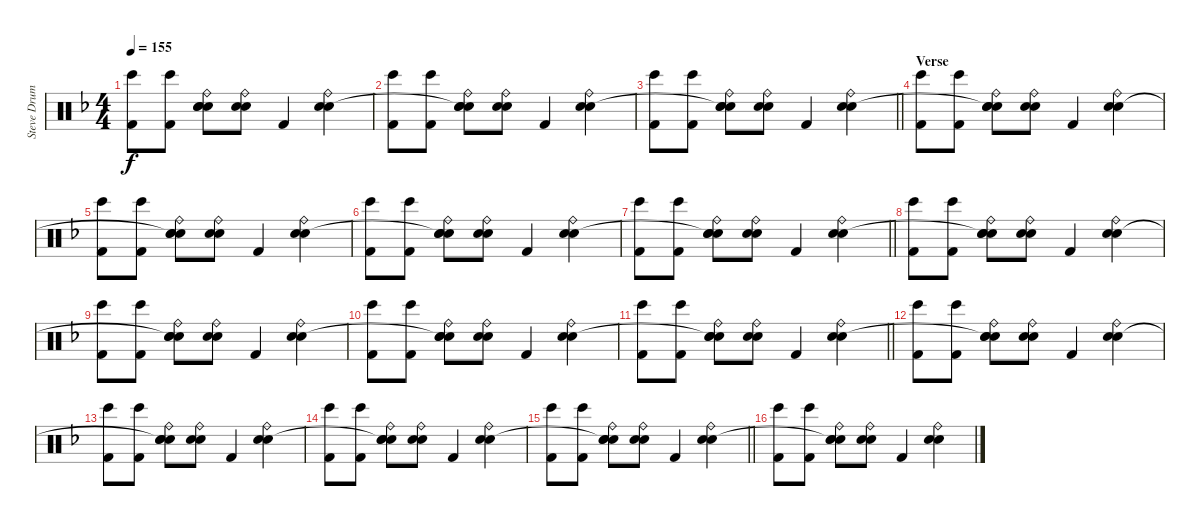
\track ("Steve Drums" "Steve Drum") {instrument percussion}
\staff {score}
\articulation defaults
\ts (4 4)
\tempo 155
\clef neutral
\ks f
("Bongo High (hit)" "Kick (hit) 2").8{dy f} ("Bongo High (hit)" "Kick (hit) 2").8 ("Ride (bell)" "Snare (hit) 2" "Snare (hit)"{t} "Electric Snare (hit)").8 ("Ride (bell)" "Snare (hit) 2" "Electric Snare (hit)").8 "Kick (hit) 2".4 ("Ride (bell)" "Snare (hit) 2" "Electric Snare (hit)").4 |
("Bongo High (hit)" "Kick (hit) 2").8 ("Bongo High (hit)" "Kick (hit) 2").8 ("Ride (bell)" "Snare (hit) 2" "Snare (hit)"{t} "Electric Snare (hit)").8 ("Ride (bell)" "Snare (hit) 2" "Electric Snare (hit)").8 "Kick (hit) 2".4 ("Ride (bell)" "Snare (hit) 2" "Electric Snare (hit)").4 |
\barLineRight lightlight
("Bongo High (hit)" "Kick (hit) 2").8 ("Bongo High (hit)" "Kick (hit) 2").8 ("Ride (bell)" "Snare (hit) 2" "Snare (hit)"{t} "Electric Snare (hit)").8 ("Ride (bell)" "Snare (hit) 2" "Electric Snare (hit)").8 "Kick (hit) 2".4 ("Ride (bell)" "Snare (hit) 2" "Electric Snare (hit)").4 |
\section ("" "Verse")
("Bongo High (hit)" "Kick (hit) 2").8 ("Bongo High (hit)" "Kick (hit) 2").8 ("Ride (bell)" "Snare (hit) 2" "Snare (hit)"{t} "Electric Snare (hit)").8 ("Ride (bell)" "Snare (hit) 2" "Electric Snare (hit)").8 "Kick (hit) 2".4 ("Ride (bell)" "Snare (hit) 2" "Electric Snare (hit)").4 |
("Bongo High (hit)" "Kick (hit) 2").8 ("Bongo High (hit)" "Kick (hit) 2").8 ("Ride (bell)" "Snare (hit) 2" "Snare (hit)"{t} "Electric Snare (hit)").8 ("Ride (bell)" "Snare (hit) 2" "Electric Snare (hit)").8 "Kick (hit) 2".4 ("Ride (bell)" "Snare (hit) 2" "Electric Snare (hit)").4 |
("Bongo High (hit)" "Kick (hit) 2").8 ("Bongo High (hit)" "Kick (hit) 2").8 ("Ride (bell)" "Snare (hit) 2" "Snare (hit)"{t} "Electric Snare (hit)").8 ("Ride (bell)" "Snare (hit) 2" "Electric Snare (hit)").8 "Kick (hit) 2".4 ("Ride (bell)" "Snare (hit) 2" "Electric Snare (hit)").4 |
\barLineRight lightlight
("Bongo High (hit)" "Kick (hit) 2").8 ("Bongo High (hit)" "Kick (hit) 2").8 ("Ride (bell)" "Snare (hit) 2" "Snare (hit)"{t} "Electric Snare (hit)").8 ("Ride (bell)" "Snare (hit) 2" "Electric Snare (hit)").8 "Kick (hit) 2".4 ("Ride (bell)" "Snare (hit) 2" "Electric Snare (hit)").4 |
("Bongo High (hit)" "Kick (hit) 2").8 ("Bongo High (hit)" "Kick (hit) 2").8 ("Ride (bell)" "Snare (hit) 2" "Snare (hit)"{t} "Electric Snare (hit)").8 ("Ride (bell)" "Snare (hit) 2" "Electric Snare (hit)").8 "Kick (hit) 2".4 ("Ride (bell)" "Snare (hit) 2" "Electric Snare (hit)").4 |
("Bongo High (hit)" "Kick (hit) 2").8 ("Bongo High (hit)" "Kick (hit) 2").8 ("Ride (bell)" "Snare (hit) 2" "Snare (hit)"{t} "Electric Snare (hit)").8 ("Ride (bell)" "Snare (hit) 2" "Electric Snare (hit)").8 "Kick (hit) 2".4 ("Ride (bell)" "Snare (hit) 2" "Electric Snare (hit)").4 |
("Bongo High (hit)" "Kick (hit) 2").8 ("Bongo High (hit)" "Kick (hit) 2").8 ("Ride (bell)" "Snare (hit) 2" "Snare (hit)"{t} "Electric Snare (hit)").8 ("Ride (bell)" "Snare (hit) 2" "Electric Snare (hit)").8 "Kick (hit) 2".4 ("Ride (bell)" "Snare (hit) 2" "Electric Snare (hit)").4 |
\barLineRight lightlight
("Bongo High (hit)" "Kick (hit) 2").8 ("Bongo High (hit)" "Kick (hit) 2").8 ("Ride (bell)" "Snare (hit) 2" "Snare (hit)"{t} "Electric Snare (hit)").8 ("Ride (bell)" "Snare (hit) 2" "Electric Snare (hit)").8 "Kick (hit) 2".4 ("Ride (bell)" "Snare (hit) 2" "Electric Snare (hit)").4 |
("Bongo High (hit)" "Kick (hit) 2").8 ("Bongo High (hit)" "Kick (hit) 2").8 ("Ride (bell)" "Snare (hit) 2" "Snare (hit)"{t} "Electric Snare (hit)").8 ("Ride (bell)" "Snare (hit) 2" "Electric Snare (hit)").8 "Kick (hit) 2".4 ("Ride (bell)" "Snare (hit) 2" "Electric Snare (hit)").4 |
("Bongo High (hit)" "Kick (hit) 2").8 ("Bongo High (hit)" "Kick (hit) 2").8 ("Ride (bell)" "Snare (hit) 2" "Snare (hit)"{t} "Electric Snare (hit)").8 ("Ride (bell)" "Snare (hit) 2" "Electric Snare (hit)").8 "Kick (hit) 2".4 ("Ride (bell)" "Snare (hit) 2" "Electric Snare (hit)").4 |
("Bongo High (hit)" "Kick (hit) 2").8 ("Bongo High (hit)" "Kick (hit) 2").8 ("Ride (bell)" "Snare (hit) 2" "Snare (hit)"{t} "Electric Snare (hit)").8 ("Ride (bell)" "Snare (hit) 2" "Electric Snare (hit)").8 "Kick (hit) 2".4 ("Ride (bell)" "Snare (hit) 2" "Electric Snare (hit)").4 |
\barLineRight lightlight
("Bongo High (hit)" "Kick (hit) 2").8 ("Bongo High (hit)" "Kick (hit) 2").8 ("Ride (bell)" "Snare (hit) 2" "Snare (hit)"{t} "Electric Snare (hit)").8 ("Ride (bell)" "Snare (hit) 2" "Electric Snare (hit)").8 "Kick (hit) 2".4 ("Ride (bell)" "Snare (hit) 2" "Electric Snare (hit)").4 |
("Bongo High (hit)" "Kick (hit) 2").8 ("Bongo High (hit)" "Kick (hit) 2").8 ("Ride (bell)" "Snare (hit) 2" "Snare (hit)"{t} "Electric Snare (hit)").8 ("Ride (bell)" "Snare (hit) 2" "Electric Snare (hit)").8 "Kick (hit) 2".4 ("Ride (bell)" "Snare (hit) 2" "Electric Snare (hit)").4
